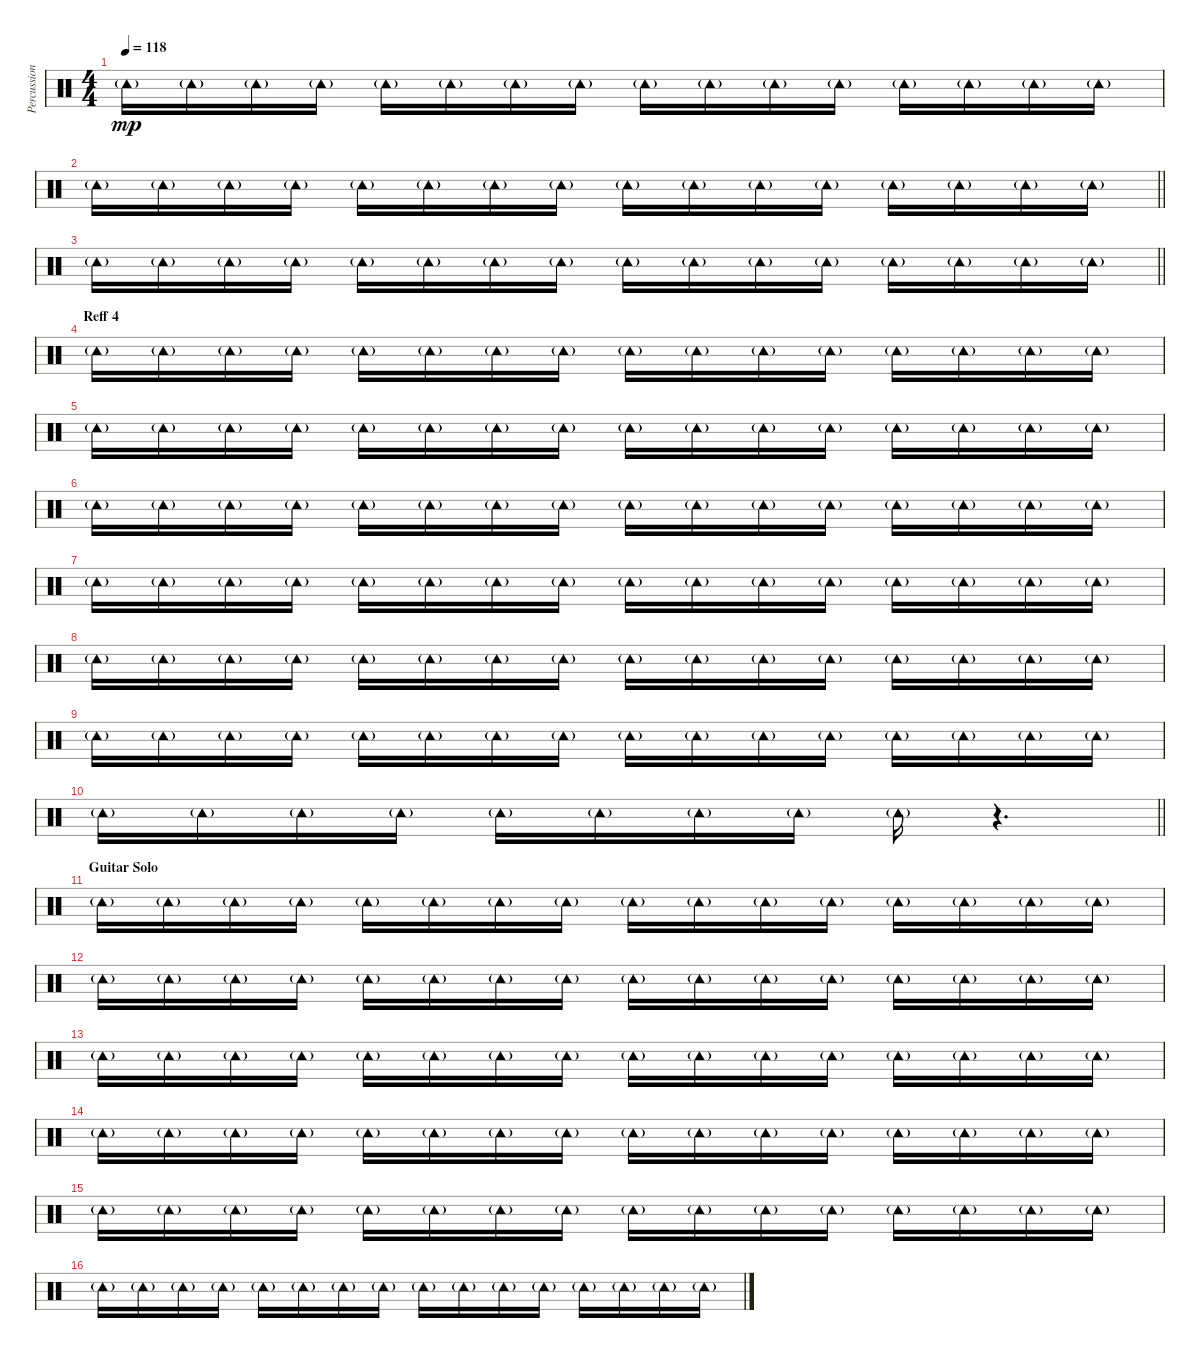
\track ("Percussion 2" "Percussion") {instrument percussion}
\staff {score}
\articulation defaults
\ts (4 4)
\tempo 118
\clef neutral
\ks c "Tambourine (hit)"{g}.16{dy mp} "Tambourine (hit)"{g}.16 "Tambourine (hit)"{g}.16 "Tambourine (hit)"{g}.16 "Tambourine (hit)"{g}.16 "Tambourine (hit)"{g}.16 "Tambourine (hit)"{g}.16 "Tambourine (hit)"{g}.16 "Tambourine (hit)"{g}.16 "Tambourine (hit)"{g}.16 "Tambourine (hit)"{g}.16 "Tambourine (hit)"{g}.16 "Tambourine (hit)"{g}.16 "Tambourine (hit)"{g}.16 "Tambourine (hit)"{g}.16 "Tambourine (hit)"{g}.16
|
\barLineRight lightlight "Tambourine (hit)"{g}.16 "Tambourine (hit)"{g}.16 "Tambourine (hit)"{g}.16 "Tambourine (hit)"{g}.16 "Tambourine (hit)"{g}.16 "Tambourine (hit)"{g}.16 "Tambourine (hit)"{g}.16 "Tambourine (hit)"{g}.16 "Tambourine (hit)"{g}.16 "Tambourine (hit)"{g}.16 "Tambourine (hit)"{g}.16 "Tambourine (hit)"{g}.16 "Tambourine (hit)"{g}.16 "Tambourine (hit)"{g}.16 "Tambourine (hit)"{g}.16 "Tambourine (hit)"{g}.16
|
\barLineRight lightlight "Tambourine (hit)"{g}.16 "Tambourine (hit)"{g}.16 "Tambourine (hit)"{g}.16 "Tambourine (hit)"{g}.16 "Tambourine (hit)"{g}.16 "Tambourine (hit)"{g}.16 "Tambourine (hit)"{g}.16 "Tambourine (hit)"{g}.16 "Tambourine (hit)"{g}.16 "Tambourine (hit)"{g}.16 "Tambourine (hit)"{g}.16 "Tambourine (hit)"{g}.16 "Tambourine (hit)"{g}.16 "Tambourine (hit)"{g}.16 "Tambourine (hit)"{g}.16 "Tambourine (hit)"{g}.16
|
\section ("" "Reff 4")
"Tambourine (hit)"{g}.16 "Tambourine (hit)"{g}.16 "Tambourine (hit)"{g}.16 "Tambourine (hit)"{g}.16 "Tambourine (hit)"{g}.16 "Tambourine (hit)"{g}.16 "Tambourine (hit)"{g}.16 "Tambourine (hit)"{g}.16 "Tambourine (hit)"{g}.16 "Tambourine (hit)"{g}.16 "Tambourine (hit)"{g}.16 "Tambourine (hit)"{g}.16 "Tambourine (hit)"{g}.16 "Tambourine (hit)"{g}.16 "Tambourine (hit)"{g}.16 "Tambourine (hit)"{g}.16 |
"Tambourine (hit)"{g}.16 "Tambourine (hit)"{g}.16 "Tambourine (hit)"{g}.16 "Tambourine (hit)"{g}.16 "Tambourine (hit)"{g}.16 "Tambourine (hit)"{g}.16 "Tambourine (hit)"{g}.16 "Tambourine (hit)"{g}.16 "Tambourine (hit)"{g}.16 "Tambourine (hit)"{g}.16 "Tambourine (hit)"{g}.16 "Tambourine (hit)"{g}.16 "Tambourine (hit)"{g}.16 "Tambourine (hit)"{g}.16 "Tambourine (hit)"{g}.16 "Tambourine (hit)"{g}.16 |
"Tambourine (hit)"{g}.16 "Tambourine (hit)"{g}.16 "Tambourine (hit)"{g}.16 "Tambourine (hit)"{g}.16 "Tambourine (hit)"{g}.16 "Tambourine (hit)"{g}.16 "Tambourine (hit)"{g}.16 "Tambourine (hit)"{g}.16 "Tambourine (hit)"{g}.16 "Tambourine (hit)"{g}.16 "Tambourine (hit)"{g}.16 "Tambourine (hit)"{g}.16 "Tambourine (hit)"{g}.16 "Tambourine (hit)"{g}.16 "Tambourine (hit)"{g}.16 "Tambourine (hit)"{g}.16 |
"Tambourine (hit)"{g}.16 "Tambourine (hit)"{g}.16 "Tambourine (hit)"{g}.16 "Tambourine (hit)"{g}.16 "Tambourine (hit)"{g}.16 "Tambourine (hit)"{g}.16 "Tambourine (hit)"{g}.16 "Tambourine (hit)"{g}.16 "Tambourine (hit)"{g}.16 "Tambourine (hit)"{g}.16 "Tambourine (hit)"{g}.16 "Tambourine (hit)"{g}.16 "Tambourine (hit)"{g}.16 "Tambourine (hit)"{g}.16 "Tambourine (hit)"{g}.16 "Tambourine (hit)"{g}.16 |
"Tambourine (hit)"{g}.16 "Tambourine (hit)"{g}.16 "Tambourine (hit)"{g}.16 "Tambourine (hit)"{g}.16 "Tambourine (hit)"{g}.16 "Tambourine (hit)"{g}.16 "Tambourine (hit)"{g}.16 "Tambourine (hit)"{g}.16 "Tambourine (hit)"{g}.16 "Tambourine (hit)"{g}.16 "Tambourine (hit)"{g}.16 "Tambourine (hit)"{g}.16 "Tambourine (hit)"{g}.16 "Tambourine (hit)"{g}.16 "Tambourine (hit)"{g}.16 "Tambourine (hit)"{g}.16 |
"Tambourine (hit)"{g}.16 "Tambourine (hit)"{g}.16 "Tambourine (hit)"{g}.16 "Tambourine (hit)"{g}.16 "Tambourine (hit)"{g}.16 "Tambourine (hit)"{g}.16 "Tambourine (hit)"{g}.16 "Tambourine (hit)"{g}.16 "Tambourine (hit)"{g}.16 "Tambourine (hit)"{g}.16 "Tambourine (hit)"{g}.16 "Tambourine (hit)"{g}.16 "Tambourine (hit)"{g}.16 "Tambourine (hit)"{g}.16 "Tambourine (hit)"{g}.16 "Tambourine (hit)"{g}.16 |
\barLineRight lightlight "Tambourine (hit)"{g}.16 "Tambourine (hit)"{g}.16 "Tambourine (hit)"{g}.16 "Tambourine (hit)"{g}.16 "Tambourine (hit)"{g}.16 "Tambourine (hit)"{g}.16 "Tambourine (hit)"{g}.16 "Tambourine (hit)"{g}.16 "Tambourine (hit)"{g}.16
r.4{d} |
\section ("" "Guitar Solo")
"Tambourine (hit)"{g}.16 "Tambourine (hit)"{g}.16 "Tambourine (hit)"{g}.16 "Tambourine (hit)"{g}.16 "Tambourine (hit)"{g}.16 "Tambourine (hit)"{g}.16 "Tambourine (hit)"{g}.16 "Tambourine (hit)"{g}.16 "Tambourine (hit)"{g}.16 "Tambourine (hit)"{g}.16 "Tambourine (hit)"{g}.16 "Tambourine (hit)"{g}.16 "Tambourine (hit)"{g}.16 "Tambourine (hit)"{g}.16 "Tambourine (hit)"{g}.16 "Tambourine (hit)"{g}.16 |
"Tambourine (hit)"{g}.16 "Tambourine (hit)"{g}.16 "Tambourine (hit)"{g}.16 "Tambourine (hit)"{g}.16 "Tambourine (hit)"{g}.16 "Tambourine (hit)"{g}.16 "Tambourine (hit)"{g}.16 "Tambourine (hit)"{g}.16 "Tambourine (hit)"{g}.16 "Tambourine (hit)"{g}.16 "Tambourine (hit)"{g}.16 "Tambourine (hit)"{g}.16 "Tambourine (hit)"{g}.16 "Tambourine (hit)"{g}.16 "Tambourine (hit)"{g}.16 "Tambourine (hit)"{g}.16 |
"Tambourine (hit)"{g}.16 "Tambourine (hit)"{g}.16 "Tambourine (hit)"{g}.16 "Tambourine (hit)"{g}.16 "Tambourine (hit)"{g}.16 "Tambourine (hit)"{g}.16 "Tambourine (hit)"{g}.16 "Tambourine (hit)"{g}.16 "Tambourine (hit)"{g}.16 "Tambourine (hit)"{g}.16 "Tambourine (hit)"{g}.16 "Tambourine (hit)"{g}.16 "Tambourine (hit)"{g}.16 "Tambourine (hit)"{g}.16 "Tambourine (hit)"{g}.16 "Tambourine (hit)"{g}.16 |
"Tambourine (hit)"{g}.16 "Tambourine (hit)"{g}.16 "Tambourine (hit)"{g}.16 "Tambourine (hit)"{g}.16 "Tambourine (hit)"{g}.16 "Tambourine (hit)"{g}.16 "Tambourine (hit)"{g}.16 "Tambourine (hit)"{g}.16 "Tambourine (hit)"{g}.16 "Tambourine (hit)"{g}.16 "Tambourine (hit)"{g}.16 "Tambourine (hit)"{g}.16 "Tambourine (hit)"{g}.16 "Tambourine (hit)"{g}.16 "Tambourine (hit)"{g}.16 "Tambourine (hit)"{g}.16 |
"Tambourine (hit)"{g}.16 "Tambourine (hit)"{g}.16 "Tambourine (hit)"{g}.16 "Tambourine (hit)"{g}.16 "Tambourine (hit)"{g}.16 "Tambourine (hit)"{g}.16 "Tambourine (hit)"{g}.16 "Tambourine (hit)"{g}.16 "Tambourine (hit)"{g}.16 "Tambourine (hit)"{g}.16 "Tambourine (hit)"{g}.16 "Tambourine (hit)"{g}.16 "Tambourine (hit)"{g}.16 "Tambourine (hit)"{g}.16 "Tambourine (hit)"{g}.16 "Tambourine (hit)"{g}.16 |
"Tambourine (hit)"{g}.16 "Tambourine (hit)"{g}.16 "Tambourine (hit)"{g}.16 "Tambourine (hit)"{g}.16 "Tambourine (hit)"{g}.16 "Tambourine (hit)"{g}.16 "Tambourine (hit)"{g}.16 "Tambourine (hit)"{g}.16 "Tambourine (hit)"{g}.16 "Tambourine (hit)"{g}.16 "Tambourine (hit)"{g}.16 "Tambourine (hit)"{g}.16 "Tambourine (hit)"{g}.16 "Tambourine (hit)"{g}.16 "Tambourine (hit)"{g}.16 "Tambourine (hit)"{g}.16
